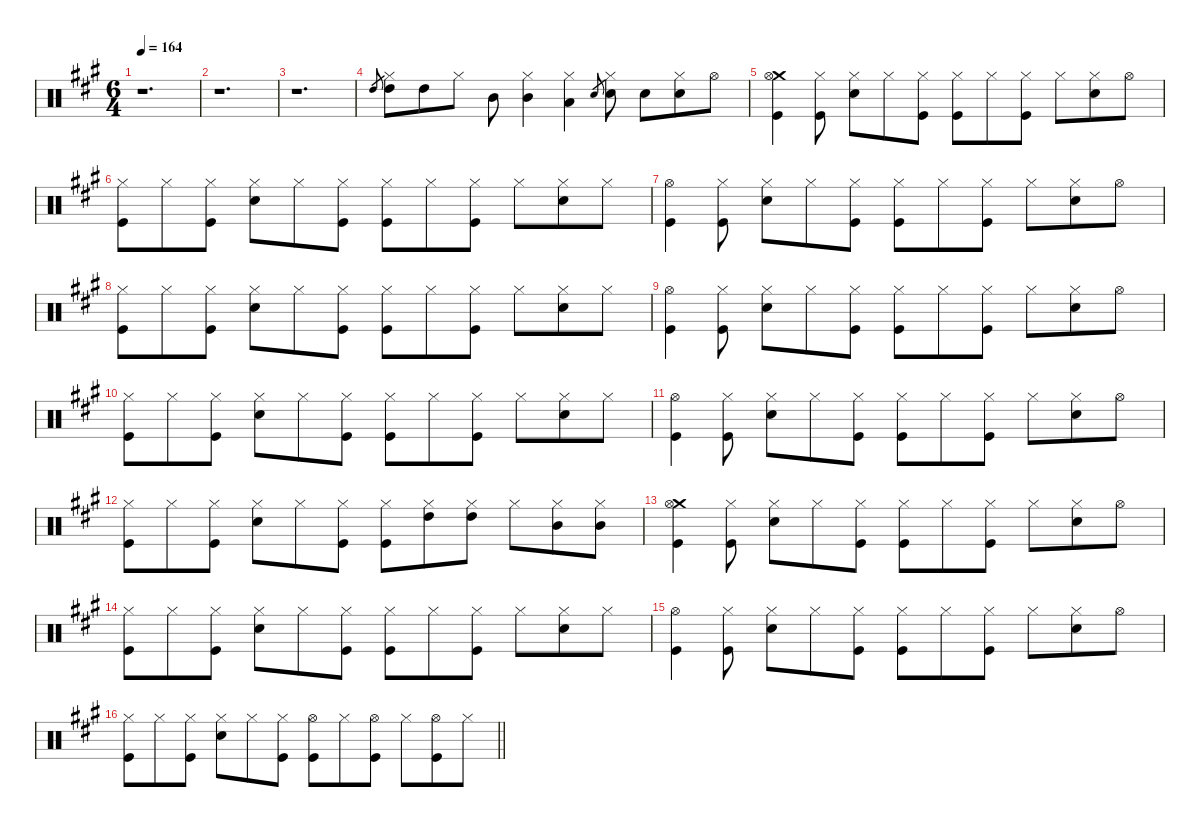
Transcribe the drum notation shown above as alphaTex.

\defaultSystemsLayout 4
\hideDynamics
\bracketExtendMode nobrackets
\singleTrackTrackNamePolicy hidden
\multiTrackTrackNamePolicy hidden
\firstSystemTrackNameMode fullname
\firstSystemTrackNameOrientation horizontal
\otherSystemsTrackNameOrientation horizontal
\track ("Drums" "drm.") {instrument percussion}
\staff {score}
\articulation defaults
\ts (6 4)
\beaming (8 3 3 3 3)
\tempo 164
\clef neutral
\ks f#minor
r.1{d dy mf beam Down} |
r.1{d beam Down} |
r.1{d beam Down} |
"High Tom (hit)"{acc forcenatural}.8{gr beam Up} ("Hi-Hat (closed)"{acc forcenatural} "High Tom (hit)"{acc forcenatural}).8{dy p beam Down} "High Tom (hit)"{acc forcenatural}.8{dy f beam Down} "Hi-Hat (closed)"{acc forcenatural}.8{dy p beam Down} "Mid Tom (hit)"{acc forcenatural}.8{dy f beam Down} ("Hi-Hat (closed)"{acc forcenatural} "Mid Tom (hit)"{acc forcenatural}).4{dy p beam Down} ("Hi-Hat (closed)"{acc forcenatural} "Low Tom (hit)"{acc forcenatural}).4{beam Down} "Electric Snare (hit)"{acc forcenatural}.8{gr dy mf beam Up} ("Hi-Hat (closed)"{acc forcenatural} "Snare (hit) 2"{acc forcenatural}).8{dy p beam Down} "Snare (hit) 2"{acc forcenatural}.8{dy f beam Down} ("Hi-Hat (closed)"{acc forcenatural} "Snare (hit) 2"{acc forcenatural}).8{dy p beam Down} "Hi-Hat (open)"{acc forcenatural}.8{dy f beam Down} |
("Crash medium (hit)"{acc forcenatural} "Hi-Hat (open)"{acc forcenatural} "Kick (hit)"{acc forcenatural}).4{beam Down} ("Hi-Hat (closed)"{acc forcenatural} "Kick (hit)"{acc forcenatural}).8{beam Down} ("Hi-Hat (closed)"{acc forcenatural} "Snare (hit) 2"{acc forcenatural}).8{beam Down} "Hi-Hat (closed)"{acc forcenatural}.8{beam Down} ("Hi-Hat (closed)"{acc forcenatural} "Kick (hit)"{acc forcenatural}).8{beam Down} ("Hi-Hat (closed)"{acc forcenatural} "Kick (hit)"{acc forcenatural}).8{beam Down} "Hi-Hat (closed)"{acc forcenatural}.8{beam Down} ("Hi-Hat (closed)"{acc forcenatural} "Kick (hit)"{acc forcenatural}).8{beam Down} "Hi-Hat (closed)"{acc forcenatural}.8{beam Down} ("Hi-Hat (closed)"{acc forcenatural} "Snare (hit) 2"{acc forcenatural}).8{beam Down} "Hi-Hat (open)"{acc forcenatural}.8{beam Down} |
("Hi-Hat (closed)"{acc forcenatural} "Kick (hit)"{acc forcenatural}).8{beam Down} "Hi-Hat (closed)"{acc forcenatural}.8{beam Down} ("Hi-Hat (closed)"{acc forcenatural} "Kick (hit)"{acc forcenatural}).8{beam Down} ("Hi-Hat (closed)"{acc forcenatural} "Snare (hit) 2"{acc forcenatural}).8{beam Down} "Hi-Hat (closed)"{acc forcenatural}.8{beam Down} ("Hi-Hat (closed)"{acc forcenatural} "Kick (hit)"{acc forcenatural}).8{beam Down} ("Hi-Hat (closed)"{acc forcenatural} "Kick (hit)"{acc forcenatural}).8{beam Down} "Hi-Hat (closed)"{acc forcenatural}.8{beam Down} ("Hi-Hat (closed)"{acc forcenatural} "Kick (hit)"{acc forcenatural}).8{beam Down} "Hi-Hat (closed)"{acc forcenatural}.8{beam Down} ("Hi-Hat (closed)"{acc forcenatural} "Snare (hit) 2"{acc forcenatural}).8{beam Down} "Hi-Hat (closed)"{acc forcenatural}.8{beam Down} |
("Hi-Hat (open)"{acc forcenatural} "Kick (hit)"{acc forcenatural}).4{beam Down} ("Hi-Hat (closed)"{acc forcenatural} "Kick (hit)"{acc forcenatural}).8{beam Down} ("Hi-Hat (closed)"{acc forcenatural} "Snare (hit) 2"{acc forcenatural}).8{beam Down} "Hi-Hat (closed)"{acc forcenatural}.8{beam Down} ("Hi-Hat (closed)"{acc forcenatural} "Kick (hit)"{acc forcenatural}).8{beam Down} ("Hi-Hat (closed)"{acc forcenatural} "Kick (hit)"{acc forcenatural}).8{beam Down} "Hi-Hat (closed)"{acc forcenatural}.8{beam Down} ("Hi-Hat (closed)"{acc forcenatural} "Kick (hit)"{acc forcenatural}).8{beam Down} "Hi-Hat (closed)"{acc forcenatural}.8{beam Down} ("Hi-Hat (closed)"{acc forcenatural} "Snare (hit) 2"{acc forcenatural}).8{beam Down} "Hi-Hat (open)"{acc forcenatural}.8{beam Down} |
("Hi-Hat (closed)"{acc forcenatural} "Kick (hit)"{acc forcenatural}).8{beam Down} "Hi-Hat (closed)"{acc forcenatural}.8{beam Down} ("Hi-Hat (closed)"{acc forcenatural} "Kick (hit)"{acc forcenatural}).8{beam Down} ("Hi-Hat (closed)"{acc forcenatural} "Snare (hit) 2"{acc forcenatural}).8{beam Down} "Hi-Hat (closed)"{acc forcenatural}.8{beam Down} ("Hi-Hat (closed)"{acc forcenatural} "Kick (hit)"{acc forcenatural}).8{beam Down} ("Hi-Hat (closed)"{acc forcenatural} "Kick (hit)"{acc forcenatural}).8{beam Down} "Hi-Hat (closed)"{acc forcenatural}.8{beam Down} ("Hi-Hat (closed)"{acc forcenatural} "Kick (hit)"{acc forcenatural}).8{beam Down} "Hi-Hat (closed)"{acc forcenatural}.8{beam Down} ("Hi-Hat (closed)"{acc forcenatural} "Snare (hit) 2"{acc forcenatural}).8{beam Down} "Hi-Hat (closed)"{acc forcenatural}.8{beam Down} |
("Hi-Hat (open)"{acc forcenatural} "Kick (hit)"{acc forcenatural}).4{beam Down} ("Hi-Hat (closed)"{acc forcenatural} "Kick (hit)"{acc forcenatural}).8{beam Down} ("Hi-Hat (closed)"{acc forcenatural} "Snare (hit) 2"{acc forcenatural}).8{beam Down} "Hi-Hat (closed)"{acc forcenatural}.8{beam Down} ("Hi-Hat (closed)"{acc forcenatural} "Kick (hit)"{acc forcenatural}).8{beam Down} ("Hi-Hat (closed)"{acc forcenatural} "Kick (hit)"{acc forcenatural}).8{beam Down} "Hi-Hat (closed)"{acc forcenatural}.8{beam Down} ("Hi-Hat (closed)"{acc forcenatural} "Kick (hit)"{acc forcenatural}).8{beam Down} "Hi-Hat (closed)"{acc forcenatural}.8{beam Down} ("Hi-Hat (closed)"{acc forcenatural} "Snare (hit) 2"{acc forcenatural}).8{beam Down} "Hi-Hat (open)"{acc forcenatural}.8{beam Down} |
("Hi-Hat (closed)"{acc forcenatural} "Kick (hit)"{acc forcenatural}).8{beam Down} "Hi-Hat (closed)"{acc forcenatural}.8{beam Down} ("Hi-Hat (closed)"{acc forcenatural} "Kick (hit)"{acc forcenatural}).8{beam Down} ("Hi-Hat (closed)"{acc forcenatural} "Snare (hit) 2"{acc forcenatural}).8{beam Down} "Hi-Hat (closed)"{acc forcenatural}.8{beam Down} ("Hi-Hat (closed)"{acc forcenatural} "Kick (hit)"{acc forcenatural}).8{beam Down} ("Hi-Hat (closed)"{acc forcenatural} "Kick (hit)"{acc forcenatural}).8{beam Down} "Hi-Hat (closed)"{acc forcenatural}.8{beam Down} ("Hi-Hat (closed)"{acc forcenatural} "Kick (hit)"{acc forcenatural}).8{beam Down} "Hi-Hat (closed)"{acc forcenatural}.8{beam Down} ("Hi-Hat (closed)"{acc forcenatural} "Snare (hit) 2"{acc forcenatural}).8{beam Down} "Hi-Hat (closed)"{acc forcenatural}.8{beam Down} |
("Hi-Hat (open)"{acc forcenatural} "Kick (hit)"{acc forcenatural}).4{beam Down} ("Hi-Hat (closed)"{acc forcenatural} "Kick (hit)"{acc forcenatural}).8{beam Down} ("Hi-Hat (closed)"{acc forcenatural} "Snare (hit) 2"{acc forcenatural}).8{beam Down} "Hi-Hat (closed)"{acc forcenatural}.8{beam Down} ("Hi-Hat (closed)"{acc forcenatural} "Kick (hit)"{acc forcenatural}).8{beam Down} ("Hi-Hat (closed)"{acc forcenatural} "Kick (hit)"{acc forcenatural}).8{beam Down} "Hi-Hat (closed)"{acc forcenatural}.8{beam Down} ("Hi-Hat (closed)"{acc forcenatural} "Kick (hit)"{acc forcenatural}).8{beam Down} "Hi-Hat (closed)"{acc forcenatural}.8{beam Down} ("Hi-Hat (closed)"{acc forcenatural} "Snare (hit) 2"{acc forcenatural}).8{beam Down} "Hi-Hat (open)"{acc forcenatural}.8{beam Down} |
("Hi-Hat (closed)"{acc forcenatural} "Kick (hit)"{acc forcenatural}).8{beam Down} "Hi-Hat (closed)"{acc forcenatural}.8{beam Down} ("Hi-Hat (closed)"{acc forcenatural} "Kick (hit)"{acc forcenatural}).8{beam Down} ("Hi-Hat (closed)"{acc forcenatural} "Snare (hit) 2"{acc forcenatural}).8{beam Down} "Hi-Hat (closed)"{acc forcenatural}.8{beam Down} ("Hi-Hat (closed)"{acc forcenatural} "Kick (hit)"{acc forcenatural}).8{beam Down} ("Hi-Hat (closed)"{acc forcenatural} "Kick (hit)"{acc forcenatural}).8{beam Down} ("Hi-Hat (closed)"{acc forcenatural} "High Tom (hit)"{acc forcenatural}).8{beam Down} ("Hi-Hat (closed)"{acc forcenatural} "High Tom (hit)"{acc forcenatural}).8{beam Down} "Hi-Hat (closed)"{acc forcenatural}.8{beam Down} ("Hi-Hat (closed)"{acc forcenatural} "Mid Tom (hit)"{acc forcenatural}).8{beam Down} ("Hi-Hat (closed)"{acc forcenatural} "Mid Tom (hit)"{acc forcenatural}).8{beam Down} |
("Crash medium (hit)"{acc forcenatural} "Hi-Hat (open)"{acc forcenatural} "Kick (hit)"{acc forcenatural}).4{dy mf beam Down} ("Hi-Hat (closed)"{acc forcenatural} "Kick (hit)"{acc forcenatural}).8{dy f beam Down} ("Hi-Hat (closed)"{acc forcenatural} "Snare (hit) 2"{acc forcenatural}).8{beam Down} "Hi-Hat (closed)"{acc forcenatural}.8{beam Down} ("Hi-Hat (closed)"{acc forcenatural} "Kick (hit)"{acc forcenatural}).8{beam Down} ("Hi-Hat (closed)"{acc forcenatural} "Kick (hit)"{acc forcenatural}).8{beam Down} "Hi-Hat (closed)"{acc forcenatural}.8{beam Down} ("Hi-Hat (closed)"{acc forcenatural} "Kick (hit)"{acc forcenatural}).8{beam Down} "Hi-Hat (closed)"{acc forcenatural}.8{beam Down} ("Hi-Hat (closed)"{acc forcenatural} "Snare (hit) 2"{acc forcenatural}).8{beam Down} "Hi-Hat (open)"{acc forcenatural}.8{beam Down} |
("Hi-Hat (closed)"{acc forcenatural} "Kick (hit)"{acc forcenatural}).8{beam Down} "Hi-Hat (closed)"{acc forcenatural}.8{beam Down} ("Hi-Hat (closed)"{acc forcenatural} "Kick (hit)"{acc forcenatural}).8{beam Down} ("Hi-Hat (closed)"{acc forcenatural} "Snare (hit) 2"{acc forcenatural}).8{beam Down} "Hi-Hat (closed)"{acc forcenatural}.8{beam Down} ("Hi-Hat (closed)"{acc forcenatural} "Kick (hit)"{acc forcenatural}).8{beam Down} ("Hi-Hat (closed)"{acc forcenatural} "Kick (hit)"{acc forcenatural}).8{beam Down} "Hi-Hat (closed)"{acc forcenatural}.8{beam Down} ("Hi-Hat (closed)"{acc forcenatural} "Kick (hit)"{acc forcenatural}).8{beam Down} "Hi-Hat (closed)"{acc forcenatural}.8{beam Down} ("Hi-Hat (closed)"{acc forcenatural} "Snare (hit) 2"{acc forcenatural}).8{beam Down} "Hi-Hat (closed)"{acc forcenatural}.8{beam Down} |
("Hi-Hat (open)"{acc forcenatural} "Kick (hit)"{acc forcenatural}).4{beam Down} ("Hi-Hat (closed)"{acc forcenatural} "Kick (hit)"{acc forcenatural}).8{beam Down} ("Hi-Hat (closed)"{acc forcenatural} "Snare (hit) 2"{acc forcenatural}).8{beam Down} "Hi-Hat (closed)"{acc forcenatural}.8{beam Down} ("Hi-Hat (closed)"{acc forcenatural} "Kick (hit)"{acc forcenatural}).8{beam Down} ("Hi-Hat (closed)"{acc forcenatural} "Kick (hit)"{acc forcenatural}).8{beam Down} "Hi-Hat (closed)"{acc forcenatural}.8{beam Down} ("Hi-Hat (closed)"{acc forcenatural} "Kick (hit)"{acc forcenatural}).8{beam Down} "Hi-Hat (closed)"{acc forcenatural}.8{beam Down} ("Hi-Hat (closed)"{acc forcenatural} "Snare (hit) 2"{acc forcenatural}).8{beam Down} "Hi-Hat (open)"{acc forcenatural}.8{beam Down} |
\barLineRight lightlight
("Hi-Hat (closed)"{acc forcenatural} "Kick (hit)"{acc forcenatural}).8{beam Down} "Hi-Hat (closed)"{acc forcenatural}.8{beam Down} ("Hi-Hat (closed)"{acc forcenatural} "Kick (hit)"{acc forcenatural}).8{beam Down} ("Hi-Hat (closed)"{acc forcenatural} "Snare (hit) 2"{acc forcenatural}).8{beam Down} "Hi-Hat (closed)"{acc forcenatural}.8{beam Down} ("Hi-Hat (closed)"{acc forcenatural} "Kick (hit)"{acc forcenatural}).8{beam Down} ("Hi-Hat (open)"{acc forcenatural} "Kick (hit)"{acc forcenatural}).8{beam Down} "Hi-Hat (closed)"{acc forcenatural}.8{dy mf beam Down} ("Hi-Hat (open)"{acc forcenatural} "Kick (hit)"{acc forcenatural}).8{dy f beam Down} "Hi-Hat (closed)"{acc forcenatural}.8{dy mf beam Down} ("Hi-Hat (open)"{acc forcenatural} "Kick (hit)"{acc forcenatural}).8{dy f beam Down} "Hi-Hat (closed)"{acc forcenatural}.8{dy mf beam Down}
